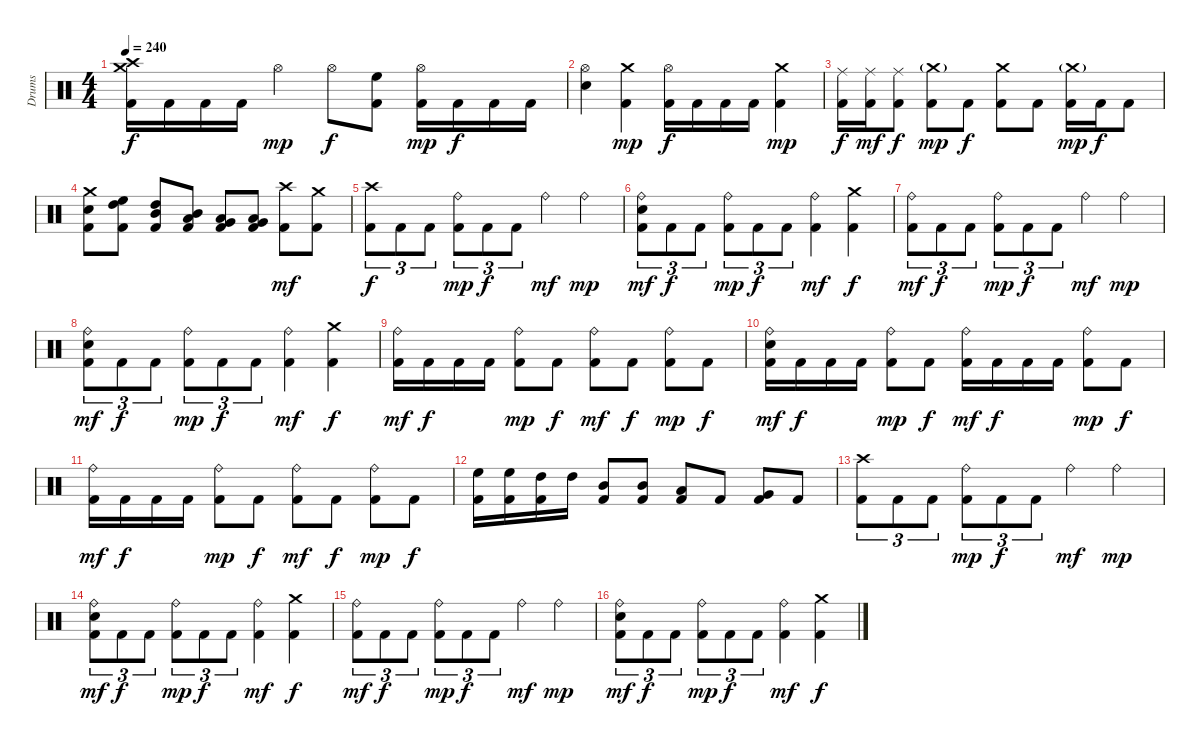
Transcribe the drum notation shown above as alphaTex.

\track ("Drums" "Drums") {instrument percussion}
\staff {score}
\articulation defaults
\ts (4 4)
\tempo 240
\clef neutral
\ks c
("Crash high (hit)" "Crash medium (hit)" "Kick (hit) 2").16{dy f} "Kick (hit) 2".16 "Kick (hit) 2".16 "Kick (hit) 2".16 "Hi-Hat (open)".4{dy mp} "Hi-Hat (open)".8{dy f} ("High Floor Tom (hit)" "Kick (hit) 2").8 ("Hi-Hat (open)" "Kick (hit) 2").16{dy mp} "Kick (hit) 2".16{dy f} "Kick (hit) 2".16 "Kick (hit) 2".16 |
("Hi-Hat (open)" "Electric Snare (hit)").4 ("Crash medium (hit)" "Kick (hit) 2").4{dy mp} ("Hi-Hat (open)" "Kick (hit) 2").16{dy f} "Kick (hit) 2".16 "Kick (hit) 2".16 "Kick (hit) 2".16 ("Crash medium (hit)" "Kick (hit) 2").4{dy mp} |
("Ride (middle)" "Kick (hit) 2").16{dy f} ("Ride (middle)" "Kick (hit) 2").16{dy mf} ("Ride (middle)" "Kick (hit) 2").8{dy f} ("Crash medium (hit)"{g} "Kick (hit) 2").8{dy mp} "Kick (hit) 2".8{dy f} ("Crash medium (hit)" "Kick (hit) 2").8 "Kick (hit) 2".8 ("Crash medium (hit)"{g} "Kick (hit) 2").16{dy mp} "Kick (hit) 2".16{dy f} "Kick (hit) 2".8 |
("Crash medium (hit)" "Electric Snare (hit)" "Kick (hit) 2").8 ("High Floor Tom (hit)" "High Tom (hit)" "Kick (hit) 2").8 ("High Tom (hit)" "Mid Tom (hit)" "Kick (hit) 2").8 ("Mid Tom (hit)" "Low Tom (hit)" "Kick (hit) 2").8 ("Low Tom (hit)" "Very Low Tom (hit)" "Kick (hit) 2").8 ("Very Low Tom (hit)" "Low Floor Tom (hit)" "Kick (hit) 2").8 ("Crash high (hit)" "Kick (hit) 2").8{dy mf} ("Crash medium (hit)" "Kick (hit) 2").8 |
("Crash high (hit)" "Kick (hit) 2").8{tu (3 2) dy f} "Kick (hit) 2".8{tu (3 2)} "Kick (hit) 2".8{tu (3 2)} ("Ride (bell)" "Kick (hit) 2").8{tu (3 2) dy mp} "Kick (hit) 2".8{tu (3 2) dy f} "Kick (hit) 2".8{tu (3 2)} "Ride (bell)".4{dy mf} "Ride (bell)".4{dy mp} |
("Ride (bell)" "Electric Snare (hit)" "Kick (hit) 2").8{tu (3 2) dy mf} "Kick (hit) 2".8{tu (3 2) dy f} "Kick (hit) 2".8{tu (3 2)} ("Ride (bell)" "Kick (hit) 2").8{tu (3 2) dy mp} "Kick (hit) 2".8{tu (3 2) dy f} "Kick (hit) 2".8{tu (3 2)} ("Ride (bell)" "Kick (hit) 2").4{dy mf} ("Crash medium (hit)" "Kick (hit) 2").4{dy f} |
("Ride (bell)" "Kick (hit) 2").8{tu (3 2) dy mf} "Kick (hit) 2".8{tu (3 2) dy f} "Kick (hit) 2".8{tu (3 2)} ("Ride (bell)" "Kick (hit) 2").8{tu (3 2) dy mp} "Kick (hit) 2".8{tu (3 2) dy f} "Kick (hit) 2".8{tu (3 2)} "Ride (bell)".4{dy mf} "Ride (bell)".4{dy mp} |
("Ride (bell)" "Electric Snare (hit)" "Kick (hit) 2").8{tu (3 2) dy mf} "Kick (hit) 2".8{tu (3 2) dy f} "Kick (hit) 2".8{tu (3 2)} ("Ride (bell)" "Kick (hit) 2").8{tu (3 2) dy mp} "Kick (hit) 2".8{tu (3 2) dy f} "Kick (hit) 2".8{tu (3 2)} ("Ride (bell)" "Kick (hit) 2").4{dy mf} ("Crash medium (hit)" "Kick (hit) 2").4{dy f} |
("Ride (bell)" "Kick (hit) 2").16{dy mf} "Kick (hit) 2".16{dy f} "Kick (hit) 2".16 "Kick (hit) 2".16 ("Ride (bell)" "Kick (hit) 2").8{dy mp} "Kick (hit) 2".8{dy f} ("Ride (bell)" "Kick (hit) 2").8{dy mf} "Kick (hit) 2".8{dy f} ("Ride (bell)" "Kick (hit) 2").8{dy mp} "Kick (hit) 2".8{dy f} |
("Ride (bell)" "Electric Snare (hit)" "Kick (hit) 2").16{dy mf} "Kick (hit) 2".16{dy f} "Kick (hit) 2".16 "Kick (hit) 2".16 ("Ride (bell)" "Kick (hit) 2").8{dy mp} "Kick (hit) 2".8{dy f} ("Ride (bell)" "Kick (hit) 2").16{dy mf} "Kick (hit) 2".16{dy f} "Kick (hit) 2".16 "Kick (hit) 2".16 ("Ride (bell)" "Kick (hit) 2").8{dy mp} "Kick (hit) 2".8{dy f} |
("Ride (bell)" "Kick (hit) 2").16{dy mf} "Kick (hit) 2".16{dy f} "Kick (hit) 2".16 "Kick (hit) 2".16 ("Ride (bell)" "Kick (hit) 2").8{dy mp} "Kick (hit) 2".8{dy f} ("Ride (bell)" "Kick (hit) 2").8{dy mf} "Kick (hit) 2".8{dy f} ("Ride (bell)" "Kick (hit) 2").8{dy mp} "Kick (hit) 2".8{dy f} |
("High Floor Tom (hit)" "Kick (hit) 2").16 ("High Floor Tom (hit)" "Kick (hit) 2").16 ("High Tom (hit)" "Kick (hit) 2").16 "High Tom (hit)".16 ("Mid Tom (hit)" "Kick (hit) 2").8 ("Mid Tom (hit)" "Kick (hit) 2").8 ("Low Tom (hit)" "Kick (hit) 2").8 "Kick (hit) 2".8 ("Very Low Tom (hit)" "Kick (hit) 2").8 "Kick (hit) 2".8 |
("Crash high (hit)" "Kick (hit) 2").8{tu (3 2)} "Kick (hit) 2".8{tu (3 2)} "Kick (hit) 2".8{tu (3 2)} ("Ride (bell)" "Kick (hit) 2").8{tu (3 2) dy mp} "Kick (hit) 2".8{tu (3 2) dy f} "Kick (hit) 2".8{tu (3 2)} "Ride (bell)".4{dy mf} "Ride (bell)".4{dy mp} |
("Ride (bell)" "Electric Snare (hit)" "Kick (hit) 2").8{tu (3 2) dy mf} "Kick (hit) 2".8{tu (3 2) dy f} "Kick (hit) 2".8{tu (3 2)} ("Ride (bell)" "Kick (hit) 2").8{tu (3 2) dy mp} "Kick (hit) 2".8{tu (3 2) dy f} "Kick (hit) 2".8{tu (3 2)} ("Ride (bell)" "Kick (hit) 2").4{dy mf} ("Crash medium (hit)" "Kick (hit) 2").4{dy f} |
("Ride (bell)" "Kick (hit) 2").8{tu (3 2) dy mf} "Kick (hit) 2".8{tu (3 2) dy f} "Kick (hit) 2".8{tu (3 2)} ("Ride (bell)" "Kick (hit) 2").8{tu (3 2) dy mp} "Kick (hit) 2".8{tu (3 2) dy f} "Kick (hit) 2".8{tu (3 2)} "Ride (bell)".4{dy mf} "Ride (bell)".4{dy mp} |
("Ride (bell)" "Electric Snare (hit)" "Kick (hit) 2").8{tu (3 2) dy mf} "Kick (hit) 2".8{tu (3 2) dy f} "Kick (hit) 2".8{tu (3 2)} ("Ride (bell)" "Kick (hit) 2").8{tu (3 2) dy mp} "Kick (hit) 2".8{tu (3 2) dy f} "Kick (hit) 2".8{tu (3 2)} ("Ride (bell)" "Kick (hit) 2").4{dy mf} ("Crash medium (hit)" "Kick (hit) 2").4{dy f}
